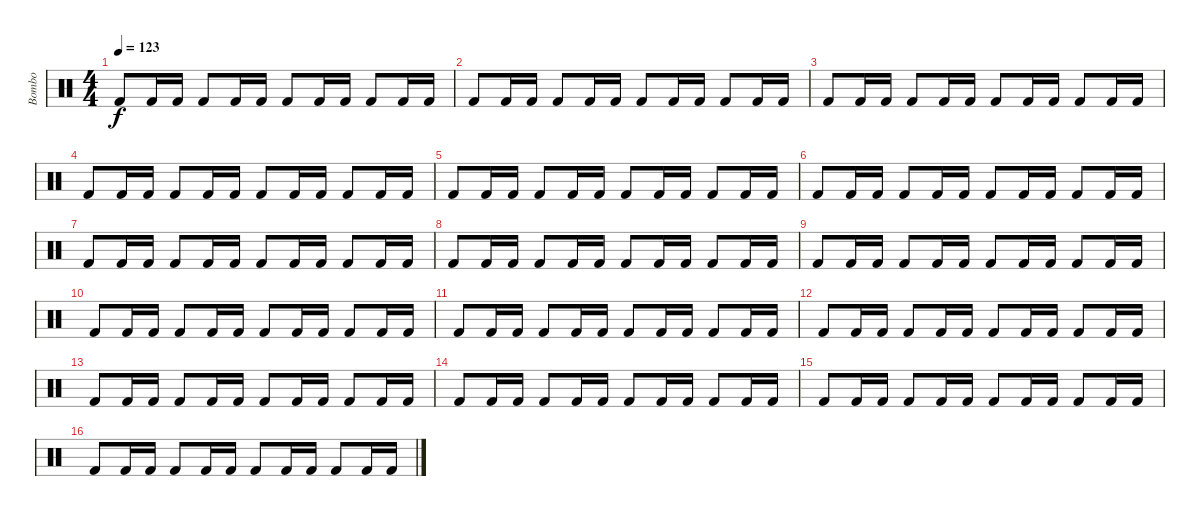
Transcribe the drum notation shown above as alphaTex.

\track ("Bombo" "Bombo") {instrument percussion}
\staff {score}
\articulation defaults
\ts (4 4)
\tempo 123
\clef neutral
\ks c "Kick (hit) 2".8{dy f} "Kick (hit) 2".16 "Kick (hit) 2".16 "Kick (hit) 2".8 "Kick (hit) 2".16 "Kick (hit) 2".16 "Kick (hit) 2".8 "Kick (hit) 2".16 "Kick (hit) 2".16 "Kick (hit) 2".8 "Kick (hit) 2".16 "Kick (hit) 2".16
|
"Kick (hit) 2".8 "Kick (hit) 2".16 "Kick (hit) 2".16 "Kick (hit) 2".8 "Kick (hit) 2".16 "Kick (hit) 2".16 "Kick (hit) 2".8 "Kick (hit) 2".16 "Kick (hit) 2".16 "Kick (hit) 2".8 "Kick (hit) 2".16 "Kick (hit) 2".16 |
"Kick (hit) 2".8 "Kick (hit) 2".16 "Kick (hit) 2".16 "Kick (hit) 2".8 "Kick (hit) 2".16 "Kick (hit) 2".16 "Kick (hit) 2".8 "Kick (hit) 2".16 "Kick (hit) 2".16 "Kick (hit) 2".8 "Kick (hit) 2".16 "Kick (hit) 2".16 |
"Kick (hit) 2".8 "Kick (hit) 2".16 "Kick (hit) 2".16 "Kick (hit) 2".8 "Kick (hit) 2".16 "Kick (hit) 2".16 "Kick (hit) 2".8 "Kick (hit) 2".16 "Kick (hit) 2".16 "Kick (hit) 2".8 "Kick (hit) 2".16 "Kick (hit) 2".16 |
"Kick (hit) 2".8 "Kick (hit) 2".16 "Kick (hit) 2".16 "Kick (hit) 2".8 "Kick (hit) 2".16 "Kick (hit) 2".16 "Kick (hit) 2".8 "Kick (hit) 2".16 "Kick (hit) 2".16 "Kick (hit) 2".8 "Kick (hit) 2".16 "Kick (hit) 2".16 |
"Kick (hit) 2".8 "Kick (hit) 2".16 "Kick (hit) 2".16 "Kick (hit) 2".8 "Kick (hit) 2".16 "Kick (hit) 2".16 "Kick (hit) 2".8 "Kick (hit) 2".16 "Kick (hit) 2".16 "Kick (hit) 2".8 "Kick (hit) 2".16 "Kick (hit) 2".16 |
"Kick (hit) 2".8 "Kick (hit) 2".16 "Kick (hit) 2".16 "Kick (hit) 2".8 "Kick (hit) 2".16 "Kick (hit) 2".16 "Kick (hit) 2".8 "Kick (hit) 2".16 "Kick (hit) 2".16 "Kick (hit) 2".8 "Kick (hit) 2".16 "Kick (hit) 2".16 |
"Kick (hit) 2".8 "Kick (hit) 2".16 "Kick (hit) 2".16 "Kick (hit) 2".8 "Kick (hit) 2".16 "Kick (hit) 2".16 "Kick (hit) 2".8 "Kick (hit) 2".16 "Kick (hit) 2".16 "Kick (hit) 2".8 "Kick (hit) 2".16 "Kick (hit) 2".16 |
"Kick (hit) 2".8 "Kick (hit) 2".16 "Kick (hit) 2".16 "Kick (hit) 2".8 "Kick (hit) 2".16 "Kick (hit) 2".16 "Kick (hit) 2".8 "Kick (hit) 2".16 "Kick (hit) 2".16 "Kick (hit) 2".8 "Kick (hit) 2".16 "Kick (hit) 2".16 |
"Kick (hit) 2".8 "Kick (hit) 2".16 "Kick (hit) 2".16 "Kick (hit) 2".8 "Kick (hit) 2".16 "Kick (hit) 2".16 "Kick (hit) 2".8 "Kick (hit) 2".16 "Kick (hit) 2".16 "Kick (hit) 2".8 "Kick (hit) 2".16 "Kick (hit) 2".16 |
"Kick (hit) 2".8 "Kick (hit) 2".16 "Kick (hit) 2".16 "Kick (hit) 2".8 "Kick (hit) 2".16 "Kick (hit) 2".16 "Kick (hit) 2".8 "Kick (hit) 2".16 "Kick (hit) 2".16 "Kick (hit) 2".8 "Kick (hit) 2".16 "Kick (hit) 2".16 |
"Kick (hit) 2".8 "Kick (hit) 2".16 "Kick (hit) 2".16 "Kick (hit) 2".8 "Kick (hit) 2".16 "Kick (hit) 2".16 "Kick (hit) 2".8 "Kick (hit) 2".16 "Kick (hit) 2".16 "Kick (hit) 2".8 "Kick (hit) 2".16 "Kick (hit) 2".16 |
"Kick (hit) 2".8 "Kick (hit) 2".16 "Kick (hit) 2".16 "Kick (hit) 2".8 "Kick (hit) 2".16 "Kick (hit) 2".16 "Kick (hit) 2".8 "Kick (hit) 2".16 "Kick (hit) 2".16 "Kick (hit) 2".8 "Kick (hit) 2".16 "Kick (hit) 2".16 |
"Kick (hit) 2".8 "Kick (hit) 2".16 "Kick (hit) 2".16 "Kick (hit) 2".8 "Kick (hit) 2".16 "Kick (hit) 2".16 "Kick (hit) 2".8 "Kick (hit) 2".16 "Kick (hit) 2".16 "Kick (hit) 2".8 "Kick (hit) 2".16 "Kick (hit) 2".16 |
"Kick (hit) 2".8 "Kick (hit) 2".16 "Kick (hit) 2".16 "Kick (hit) 2".8 "Kick (hit) 2".16 "Kick (hit) 2".16 "Kick (hit) 2".8 "Kick (hit) 2".16 "Kick (hit) 2".16 "Kick (hit) 2".8 "Kick (hit) 2".16 "Kick (hit) 2".16 |
"Kick (hit) 2".8 "Kick (hit) 2".16 "Kick (hit) 2".16 "Kick (hit) 2".8 "Kick (hit) 2".16 "Kick (hit) 2".16 "Kick (hit) 2".8 "Kick (hit) 2".16 "Kick (hit) 2".16 "Kick (hit) 2".8 "Kick (hit) 2".16 "Kick (hit) 2".16
